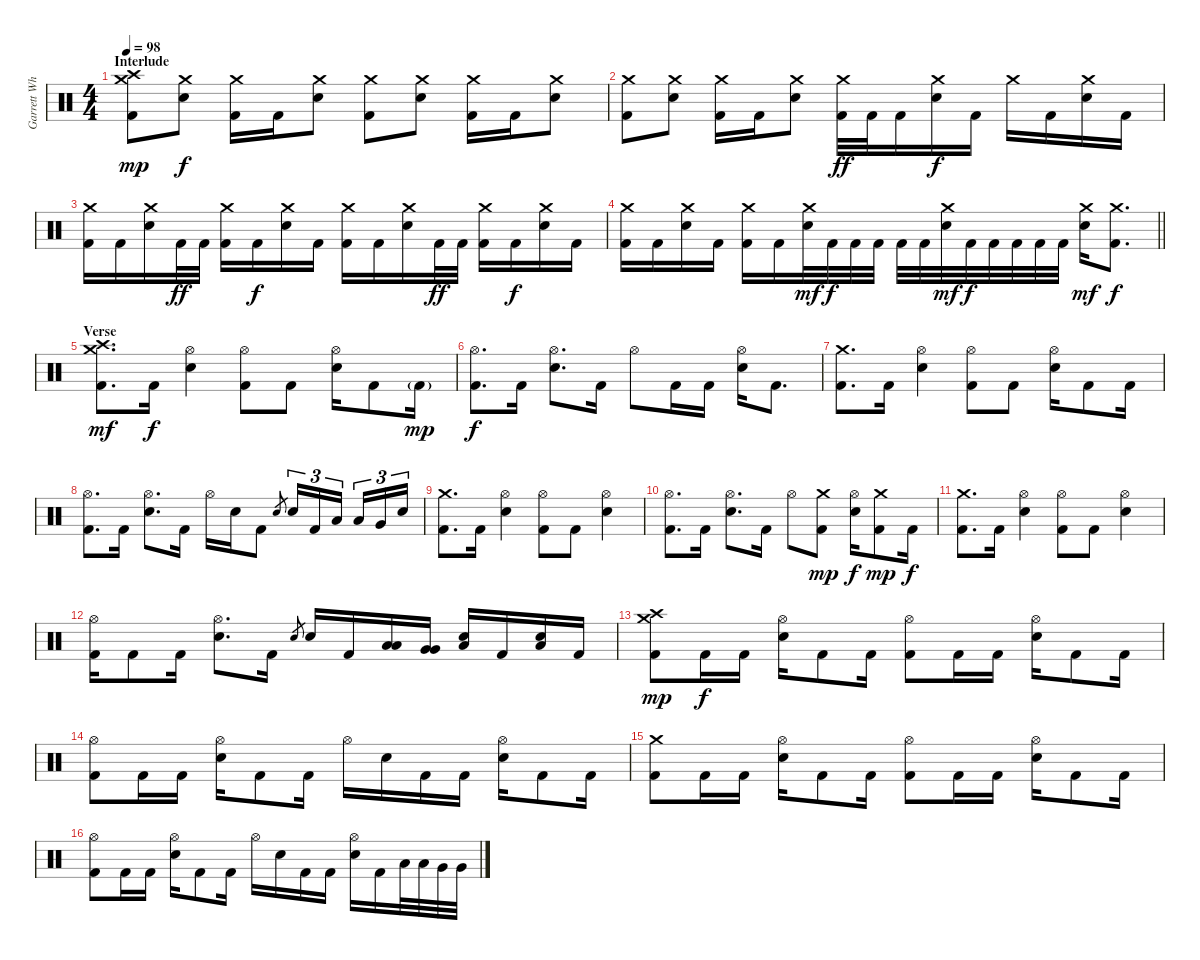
\track ("Garrett Whitlock" "Garrett Wh") {instrument percussion}
\staff {score}
\articulation defaults
\ts (4 4)
\section ("" "Interlude")
\tempo 98
\clef neutral
\ks c
("Crash high (hit)" "Crash medium (hit)" "Kick (hit) 2").8{dy mp} ("Crash medium (hit)" "Electric Snare (hit)").8{dy f} ("Crash medium (hit)" "Kick (hit) 2").16 "Kick (hit) 2".16 ("Crash medium (hit)" "Electric Snare (hit)").8 ("Crash medium (hit)" "Kick (hit) 2").8 ("Crash medium (hit)" "Electric Snare (hit)").8 ("Crash medium (hit)" "Kick (hit) 2").16 "Kick (hit) 2".16 ("Crash medium (hit)" "Electric Snare (hit)").8 |
("Crash medium (hit)" "Kick (hit) 2").8 ("Crash medium (hit)" "Electric Snare (hit)").8 ("Crash medium (hit)" "Kick (hit) 2").16 "Kick (hit) 2".16 ("Crash medium (hit)" "Electric Snare (hit)").8 ("Crash medium (hit)" "Kick (hit) 2").32{dy ff} "Kick (hit) 2".32 "Kick (hit) 2".16 ("Crash medium (hit)" "Electric Snare (hit)").16{dy f} "Kick (hit) 2".16 "Crash medium (hit)".16 "Kick (hit) 2".16 ("Crash medium (hit)" "Electric Snare (hit)").16 "Kick (hit) 2".16 |
("Crash medium (hit)" "Kick (hit) 2").16 "Kick (hit) 2".16 ("Crash medium (hit)" "Electric Snare (hit)").16 "Kick (hit) 2".32{dy ff} "Kick (hit) 2".32 ("Crash medium (hit)" "Kick (hit) 2").16 "Kick (hit) 2".16{dy f} ("Crash medium (hit)" "Electric Snare (hit)").16 "Kick (hit) 2".16 ("Crash medium (hit)" "Kick (hit) 2").16 "Kick (hit) 2".16 ("Crash medium (hit)" "Electric Snare (hit)").16 "Kick (hit) 2".32{dy ff} "Kick (hit) 2".32 ("Crash medium (hit)" "Kick (hit) 2").16 "Kick (hit) 2".16{dy f} ("Crash medium (hit)" "Electric Snare (hit)").16 "Kick (hit) 2".16 |
\barLineRight lightlight
("Crash medium (hit)" "Kick (hit) 2").16 "Kick (hit) 2".16 ("Crash medium (hit)" "Electric Snare (hit)").16 "Kick (hit) 2".16 ("Crash medium (hit)" "Kick (hit) 2").16 "Kick (hit) 2".16 ("Crash medium (hit)" "Electric Snare (hit)").32{dy mf} "Kick (hit) 2".32{dy f} "Kick (hit) 2".32 "Kick (hit) 2".32 "Kick (hit) 2".32 "Kick (hit) 2".32 ("Crash medium (hit)" "Electric Snare (hit)").32{dy mf} "Kick (hit) 2".32{dy f} "Kick (hit) 2".32 "Kick (hit) 2".32 "Kick (hit) 2".32 "Kick (hit) 2".32 ("Crash medium (hit)" "Electric Snare (hit)").16{dy mf} ("Crash medium (hit)" "Kick (hit) 2").8{d dy f} |
\section ("" "Verse")
("Crash high (hit)" "Crash medium (hit)" "Kick (hit) 2").8{d dy mf} "Kick (hit) 2".16{dy f} ("Hi-Hat (open)" "Electric Snare (hit)").4 ("Hi-Hat (open)" "Kick (hit) 2").8 "Kick (hit) 2".8 ("Hi-Hat (open)" "Electric Snare (hit)").16 "Kick (hit) 2".8 "Kick (hit) 2"{g}.16{dy mp} |
("Hi-Hat (open)" "Kick (hit) 2").8{d dy f} "Kick (hit) 2".16 ("Hi-Hat (open)" "Electric Snare (hit)").8{d} "Kick (hit) 2".16 "Hi-Hat (open)".8 "Kick (hit) 2".16 "Kick (hit) 2".16 ("Hi-Hat (open)" "Electric Snare (hit)").16 "Kick (hit) 2".8{d} |
("Crash medium (hit)" "Kick (hit) 2").8{d} "Kick (hit) 2".16 ("Hi-Hat (open)" "Electric Snare (hit)").4 ("Hi-Hat (open)" "Kick (hit) 2").8 "Kick (hit) 2".8 ("Hi-Hat (open)" "Electric Snare (hit)").16 "Kick (hit) 2".8 "Kick (hit) 2".16 |
("Hi-Hat (open)" "Kick (hit) 2").8{d} "Kick (hit) 2".16 ("Hi-Hat (open)" "Electric Snare (hit)").8{d} "Kick (hit) 2".16 "Hi-Hat (open)".16 "Electric Snare (hit)".16 "Kick (hit) 2".8 "Electric Snare (hit)".8{gr} "Electric Snare (hit)".16{tu (3 2)} "Kick (hit) 2".16{tu (3 2)} "Low Tom (hit)".16{tu (3 2) beam splitsecondary} "Low Tom (hit)".16{tu (3 2)} "Very Low Tom (hit)".16{tu (3 2)} "Electric Snare (hit)".16{tu (3 2)} |
("Crash medium (hit)" "Kick (hit) 2").8{d} "Kick (hit) 2".16 ("Hi-Hat (open)" "Electric Snare (hit)").4 ("Hi-Hat (open)" "Kick (hit) 2").8 "Kick (hit) 2".8 ("Hi-Hat (open)" "Electric Snare (hit)").4 |
("Hi-Hat (open)" "Kick (hit) 2").8{d} "Kick (hit) 2".16 ("Hi-Hat (open)" "Electric Snare (hit)").8{d} "Kick (hit) 2".16 "Hi-Hat (open)".8 ("Crash medium (hit)" "Kick (hit) 2").8{dy mp} ("Hi-Hat (open)" "Electric Snare (hit)").16{dy f} ("Crash medium (hit)" "Kick (hit) 2").8{dy mp} "Kick (hit) 2".16{dy f} |
("Crash medium (hit)" "Kick (hit) 2").8{d} "Kick (hit) 2".16 ("Hi-Hat (open)" "Electric Snare (hit)").4 ("Hi-Hat (open)" "Kick (hit) 2").8 "Kick (hit) 2".8 ("Hi-Hat (open)" "Electric Snare (hit)").4 |
("Hi-Hat (open)" "Kick (hit) 2").16 "Kick (hit) 2".8 "Kick (hit) 2".16 ("Hi-Hat (open)" "Electric Snare (hit)").8{d} "Kick (hit) 2".16 "Electric Snare (hit)".8{gr} "Electric Snare (hit)".16 "Kick (hit) 2".16 ("Low Tom (hit)" "Low Tom (hit)").16 ("Very Low Tom (hit)" "Very Low Tom (hit)").16 ("Low Floor Tom (hit)" "Electric Snare (hit)").16 "Kick (hit) 2".16 ("Low Floor Tom (hit)" "Electric Snare (hit)").16 "Kick (hit) 2".16 |
("Crash high (hit)" "Crash medium (hit)" "Kick (hit) 2").8{dy mp} "Kick (hit) 2".16{dy f} "Kick (hit) 2".16 ("Hi-Hat (open)" "Electric Snare (hit)").16 "Kick (hit) 2".8 "Kick (hit) 2".16 ("Hi-Hat (open)" "Kick (hit) 2").8 "Kick (hit) 2".16 "Kick (hit) 2".16 ("Hi-Hat (open)" "Electric Snare (hit)").16 "Kick (hit) 2".8 "Kick (hit) 2".16 |
("Hi-Hat (open)" "Kick (hit) 2").8 "Kick (hit) 2".16 "Kick (hit) 2".16 ("Hi-Hat (open)" "Electric Snare (hit)").16 "Kick (hit) 2".8 "Kick (hit) 2".16 "Hi-Hat (open)".16 "Electric Snare (hit)".16 "Kick (hit) 2".16 "Kick (hit) 2".16 ("Hi-Hat (open)" "Electric Snare (hit)").16 "Kick (hit) 2".8 "Kick (hit) 2".16 |
("Crash medium (hit)" "Kick (hit) 2").8 "Kick (hit) 2".16 "Kick (hit) 2".16 ("Hi-Hat (open)" "Electric Snare (hit)").16 "Kick (hit) 2".8 "Kick (hit) 2".16 ("Hi-Hat (open)" "Kick (hit) 2").8 "Kick (hit) 2".16 "Kick (hit) 2".16 ("Hi-Hat (open)" "Electric Snare (hit)").16 "Kick (hit) 2".8 "Kick (hit) 2".16 |
("Hi-Hat (open)" "Kick (hit) 2").8 "Kick (hit) 2".16 "Kick (hit) 2".16 ("Hi-Hat (open)" "Electric Snare (hit)").16 "Kick (hit) 2".8 "Kick (hit) 2".16 "Hi-Hat (open)".16 "Electric Snare (hit)".16 "Kick (hit) 2".16 "Kick (hit) 2".16 ("Hi-Hat (open)" "Electric Snare (hit)").16 "Kick (hit) 2".16 "Low Tom (hit)".32 "Low Tom (hit)".32 "Very Low Tom (hit)".32 "Very Low Tom (hit)".32
